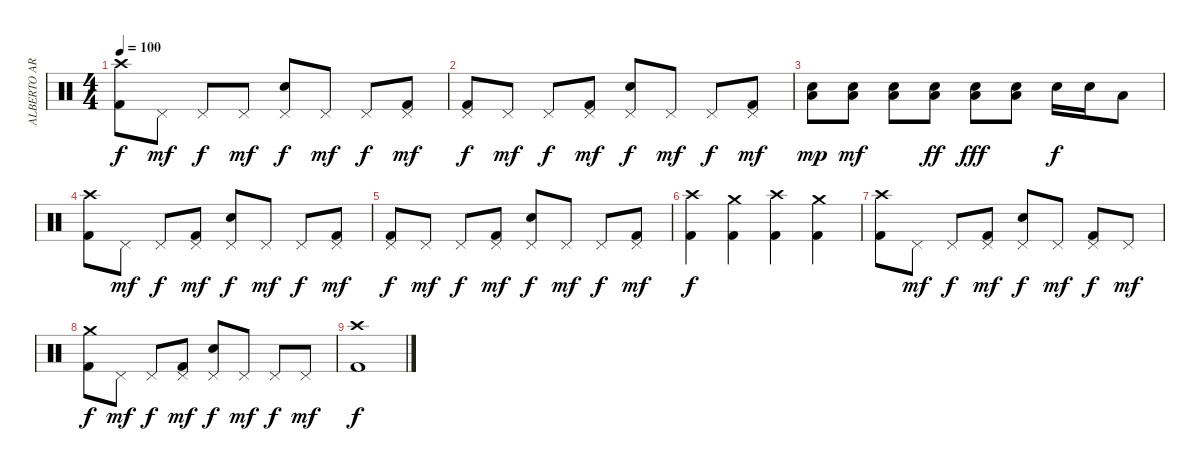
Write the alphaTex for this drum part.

\track ("ALBERTO ARDINES" "ALBERTO AR") {instrument percussion}
\staff {score}
\articulation defaults
\ts (4 4)
\tempo 100
\clef neutral
\ks c
("Crash high (hit)" "Kick (hit) 2").8{dy f} "Pedal Hi-Hat (hit)".8{dy mf} "Pedal Hi-Hat (hit)".8{dy f} "Pedal Hi-Hat (hit)".8{dy mf} ("Pedal Hi-Hat (hit)" "Electric Snare (hit)").8{dy f} "Pedal Hi-Hat (hit)".8{dy mf} "Pedal Hi-Hat (hit)".8{dy f} ("Pedal Hi-Hat (hit)" "Kick (hit) 2").8{dy mf} |
("Pedal Hi-Hat (hit)" "Kick (hit) 2").8{dy f} "Pedal Hi-Hat (hit)".8{dy mf} "Pedal Hi-Hat (hit)".8{dy f} ("Pedal Hi-Hat (hit)" "Kick (hit) 2").8{dy mf} ("Pedal Hi-Hat (hit)" "Electric Snare (hit)").8{dy f} "Pedal Hi-Hat (hit)".8{dy mf} "Pedal Hi-Hat (hit)".8{dy f} ("Pedal Hi-Hat (hit)" "Kick (hit) 2").8{dy mf} |
("Low Floor Tom (hit)" "Electric Snare (hit)").8{dy mp} ("Low Floor Tom (hit)" "Electric Snare (hit)").8{dy mf} ("Low Floor Tom (hit)" "Electric Snare (hit)").8 ("Low Floor Tom (hit)" "Electric Snare (hit)").8{dy ff} ("Low Floor Tom (hit)" "Electric Snare (hit)").8{dy fff} ("Low Floor Tom (hit)" "Electric Snare (hit)").8 "Electric Snare (hit)".16{dy f} "Electric Snare (hit)".16 "Low Tom (hit)".8 |
("Crash high (hit)" "Kick (hit) 2").8 "Pedal Hi-Hat (hit)".8{dy mf} "Pedal Hi-Hat (hit)".8{dy f} ("Pedal Hi-Hat (hit)" "Kick (hit) 2").8{dy mf} ("Pedal Hi-Hat (hit)" "Electric Snare (hit)").8{dy f} "Pedal Hi-Hat (hit)".8{dy mf} "Pedal Hi-Hat (hit)".8{dy f} ("Pedal Hi-Hat (hit)" "Kick (hit) 2").8{dy mf} |
("Pedal Hi-Hat (hit)" "Kick (hit) 2").8{dy f} "Pedal Hi-Hat (hit)".8{dy mf} "Pedal Hi-Hat (hit)".8{dy f} ("Pedal Hi-Hat (hit)" "Kick (hit) 2").8{dy mf} ("Pedal Hi-Hat (hit)" "Electric Snare (hit)").8{dy f} "Pedal Hi-Hat (hit)".8{dy mf} "Pedal Hi-Hat (hit)".8{dy f} ("Pedal Hi-Hat (hit)" "Kick (hit) 2").8{dy mf} |
("Crash high (hit)" "Kick (hit) 2").4{dy f} ("Crash medium (hit)" "Kick (hit) 2").4 ("Crash high (hit)" "Kick (hit) 2").4 ("Crash medium (hit)" "Kick (hit) 2").4 |
("Crash high (hit)" "Kick (hit) 2").8 "Pedal Hi-Hat (hit)".8{dy mf} "Pedal Hi-Hat (hit)".8{dy f} ("Pedal Hi-Hat (hit)" "Kick (hit) 2").8{dy mf} ("Pedal Hi-Hat (hit)" "Electric Snare (hit)").8{dy f} "Pedal Hi-Hat (hit)".8{dy mf} ("Pedal Hi-Hat (hit)" "Kick (hit) 2").8{dy f} "Pedal Hi-Hat (hit)".8{dy mf} |
("Crash medium (hit)" "Kick (hit) 2").8{dy f} "Pedal Hi-Hat (hit)".8{dy mf} "Pedal Hi-Hat (hit)".8{dy f} ("Pedal Hi-Hat (hit)" "Kick (hit) 2").8{dy mf} ("Pedal Hi-Hat (hit)" "Electric Snare (hit)").8{dy f} "Pedal Hi-Hat (hit)".8{dy mf} "Pedal Hi-Hat (hit)".8{dy f} "Pedal Hi-Hat (hit)".8{dy mf} |
("Crash high (hit)" "Kick (hit) 2").1{dy f}
